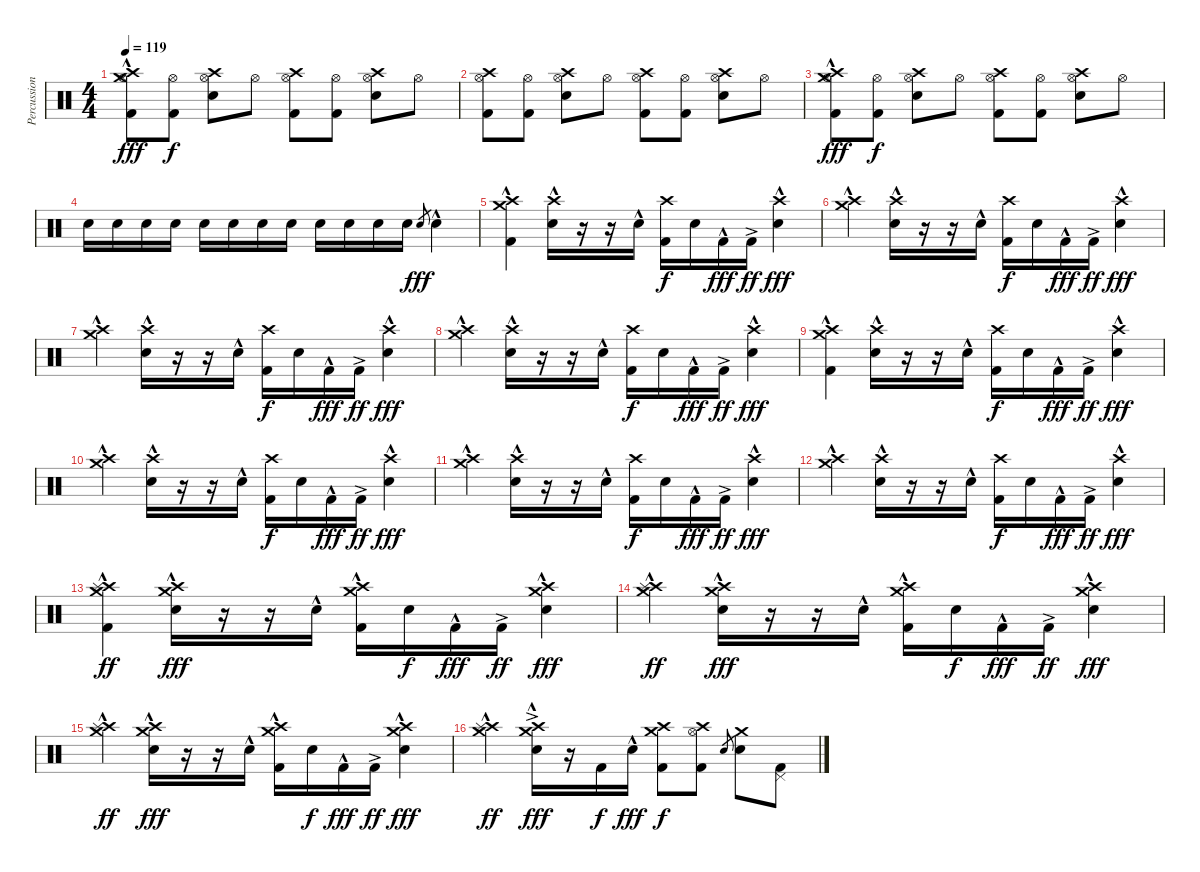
\track ("Percussion" "Percussion") {instrument percussion}
\staff {score}
\articulation defaults
\ts (4 4)
\tempo 119
\clef neutral
\ks c
("Crash high (hit)"{hac} "Hi-Hat (open)"{hac} "Crash medium (hit)"{hac} "Kick (hit) 2").8{dy fff} ("Hi-Hat (open)" "Kick (hit) 2").8{dy f} ("Crash high (hit)" "Hi-Hat (open)" "Electric Snare (hit)").8 "Hi-Hat (open)".8 ("Crash high (hit)" "Hi-Hat (open)" "Kick (hit) 2").8 ("Hi-Hat (open)" "Kick (hit) 2").8 ("Crash high (hit)" "Hi-Hat (open)" "Electric Snare (hit)").8 "Hi-Hat (open)".8 |
("Crash high (hit)" "Hi-Hat (open)" "Kick (hit) 2").8 ("Hi-Hat (open)" "Kick (hit) 2").8 ("Crash high (hit)" "Hi-Hat (open)" "Electric Snare (hit)").8 "Hi-Hat (open)".8 ("Crash high (hit)" "Hi-Hat (open)" "Kick (hit) 2").8 ("Hi-Hat (open)" "Kick (hit) 2").8 ("Crash high (hit)" "Hi-Hat (open)" "Electric Snare (hit)").8 "Hi-Hat (open)".8 |
("Crash high (hit)"{hac} "Hi-Hat (open)"{hac} "Crash medium (hit)"{hac} "Kick (hit) 2").8{dy fff} ("Hi-Hat (open)" "Kick (hit) 2").8{dy f} ("Crash high (hit)" "Hi-Hat (open)" "Electric Snare (hit)").8 "Hi-Hat (open)".8 ("Crash high (hit)" "Hi-Hat (open)" "Kick (hit) 2").8 ("Hi-Hat (open)" "Kick (hit) 2").8 ("Crash high (hit)" "Hi-Hat (open)" "Electric Snare (hit)").8 "Hi-Hat (open)".8 |
"Electric Snare (hit)".16 "Electric Snare (hit)".16 "Electric Snare (hit)".16 "Electric Snare (hit)".16 "Electric Snare (hit)".16 "Electric Snare (hit)".16 "Electric Snare (hit)".16 "Electric Snare (hit)".16 "Electric Snare (hit)".16 "Electric Snare (hit)".16 "Electric Snare (hit)".16 "Electric Snare (hit)".16 "Electric Snare (hit)".8{gr dy fff} "Electric Snare (hit)"{hac}.4 |
("Crash high (hit)" "Crash medium (hit)"{hac} "Kick (hit) 2").4 ("Crash high (hit)" "Electric Snare (hit)"{hac}).16 r.16 r.16 "Electric Snare (hit)"{hac}.16 ("Crash high (hit)" "Kick (hit) 2").16{dy f} "Electric Snare (hit)".16 "Kick (hit) 2"{hac}.16{dy fff} "Kick (hit) 2"{ac}.16{dy ff} ("Crash high (hit)" "Electric Snare (hit)"{hac}).4{dy fff} |
("Crash high (hit)" "Crash medium (hit)"{hac}).4 ("Crash high (hit)" "Electric Snare (hit)"{hac}).16 r.16 r.16 "Electric Snare (hit)"{hac}.16 ("Crash high (hit)" "Kick (hit) 2").16{dy f} "Electric Snare (hit)".16 "Kick (hit) 2"{hac}.16{dy fff} "Kick (hit) 2"{ac}.16{dy ff} ("Crash high (hit)" "Electric Snare (hit)"{hac}).4{dy fff} |
("Crash high (hit)" "Crash medium (hit)"{hac}).4 ("Crash high (hit)" "Electric Snare (hit)"{hac}).16 r.16 r.16 "Electric Snare (hit)"{hac}.16 ("Crash high (hit)" "Kick (hit) 2").16{dy f} "Electric Snare (hit)".16 "Kick (hit) 2"{hac}.16{dy fff} "Kick (hit) 2"{ac}.16{dy ff} ("Crash high (hit)" "Electric Snare (hit)"{hac}).4{dy fff} |
("Crash high (hit)" "Crash medium (hit)"{hac}).4 ("Crash high (hit)" "Electric Snare (hit)"{hac}).16 r.16 r.16 "Electric Snare (hit)"{hac}.16 ("Crash high (hit)" "Kick (hit) 2").16{dy f} "Electric Snare (hit)".16 "Kick (hit) 2"{hac}.16{dy fff} "Kick (hit) 2"{ac}.16{dy ff} ("Crash high (hit)" "Electric Snare (hit)"{hac}).4{dy fff} |
("Crash high (hit)" "Crash medium (hit)"{hac} "Kick (hit) 2").4 ("Crash high (hit)" "Electric Snare (hit)"{hac}).16 r.16 r.16 "Electric Snare (hit)"{hac}.16 ("Crash high (hit)" "Kick (hit) 2").16{dy f} "Electric Snare (hit)".16 "Kick (hit) 2"{hac}.16{dy fff} "Kick (hit) 2"{ac}.16{dy ff} ("Crash high (hit)" "Electric Snare (hit)"{hac}).4{dy fff} |
("Crash high (hit)" "Crash medium (hit)"{hac}).4 ("Crash high (hit)" "Electric Snare (hit)"{hac}).16 r.16 r.16 "Electric Snare (hit)"{hac}.16 ("Crash high (hit)" "Kick (hit) 2").16{dy f} "Electric Snare (hit)".16 "Kick (hit) 2"{hac}.16{dy fff} "Kick (hit) 2"{ac}.16{dy ff} ("Crash high (hit)" "Electric Snare (hit)"{hac}).4{dy fff} |
("Crash high (hit)" "Crash medium (hit)"{hac}).4 ("Crash high (hit)" "Electric Snare (hit)"{hac}).16 r.16 r.16 "Electric Snare (hit)"{hac}.16 ("Crash high (hit)" "Kick (hit) 2").16{dy f} "Electric Snare (hit)".16 "Kick (hit) 2"{hac}.16{dy fff} "Kick (hit) 2"{ac}.16{dy ff} ("Crash high (hit)" "Electric Snare (hit)"{hac}).4{dy fff} |
("Crash high (hit)" "Crash medium (hit)"{hac}).4 ("Crash high (hit)" "Electric Snare (hit)"{hac}).16 r.16 r.16 "Electric Snare (hit)"{hac}.16 ("Crash high (hit)" "Kick (hit) 2").16{dy f} "Electric Snare (hit)".16 "Kick (hit) 2"{hac}.16{dy fff} "Kick (hit) 2"{ac}.16{dy ff} ("Crash high (hit)" "Electric Snare (hit)"{hac}).4{dy fff} |
("Crash high (hit)"{hac} "Crash medium (hit)"{hac} "Splash (hit)"{hac} "Kick (hit) 2").4{dy ff} ("Crash high (hit)" "Crash medium (hit)"{hac} "Electric Snare (hit)"{hac}).16{dy fff} r.16 r.16 "Electric Snare (hit)"{hac}.16 ("Crash high (hit)" "Crash medium (hit)"{hac} "Kick (hit) 2").16 "Electric Snare (hit)".16{dy f} "Kick (hit) 2"{hac}.16{dy fff} "Kick (hit) 2"{ac}.16{dy ff} ("Crash high (hit)" "Crash medium (hit)"{hac} "Electric Snare (hit)"{hac}).4{dy fff} |
("Crash high (hit)"{hac} "Crash medium (hit)"{hac} "Splash (hit)"{hac}).4{dy ff} ("Crash high (hit)" "Crash medium (hit)"{hac} "Electric Snare (hit)"{hac}).16{dy fff} r.16 r.16 "Electric Snare (hit)"{hac}.16 ("Crash high (hit)" "Crash medium (hit)"{hac} "Kick (hit) 2").16 "Electric Snare (hit)".16{dy f} "Kick (hit) 2"{hac}.16{dy fff} "Kick (hit) 2"{ac}.16{dy ff} ("Crash high (hit)" "Crash medium (hit)"{hac} "Electric Snare (hit)"{hac}).4{dy fff} |
("Crash high (hit)"{hac} "Crash medium (hit)"{hac} "Splash (hit)"{hac}).4{dy ff} ("Crash high (hit)" "Crash medium (hit)"{hac} "Electric Snare (hit)"{hac}).16{dy fff} r.16 r.16 "Electric Snare (hit)"{hac}.16 ("Crash high (hit)" "Crash medium (hit)"{hac} "Kick (hit) 2").16 "Electric Snare (hit)".16{dy f} "Kick (hit) 2"{hac}.16{dy fff} "Kick (hit) 2"{ac}.16{dy ff} ("Crash high (hit)" "Crash medium (hit)"{hac} "Electric Snare (hit)"{hac}).4{dy fff} |
("Crash high (hit)" "Crash medium (hit)"{hac} "Splash (hit)"{hac}).4{dy ff} ("Crash high (hit)" "Crash medium (hit)"{ac} "Electric Snare (hit)"{hac}).16{dy fff} r.16 "Kick (hit) 2".16{dy f} "Electric Snare (hit)"{hac}.16{dy fff} ("Crash high (hit)" "Crash medium (hit)" "Kick (hit) 2").8{dy f} ("Crash high (hit)" "Hi-Hat (open)" "Kick (hit) 2").8 "Electric Snare (hit)".8{gr} ("Crash medium (hit)" "Electric Snare (hit)").8 ("Pedal Hi-Hat (hit)" "Kick (hit) 2").8
